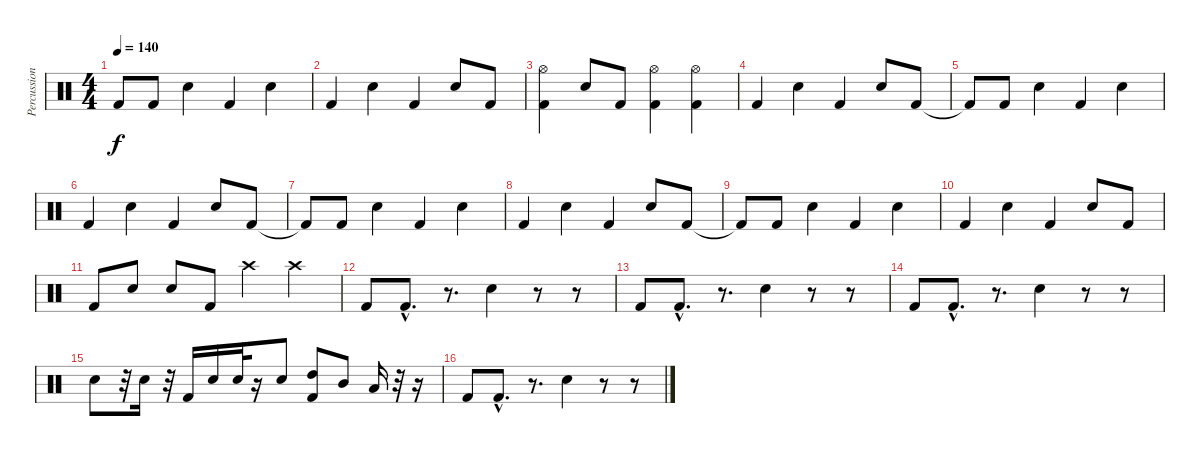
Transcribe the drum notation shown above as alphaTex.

\track ("Percussion" "Percussion") {instrument percussion}
\staff {score}
\articulation defaults
\ts (4 4)
\tempo 140
\clef neutral
\ks c "Kick (hit) 2"{t}.8{dy f} "Kick (hit) 2".8 "Electric Snare (hit)".4 "Kick (hit) 2".4 "Electric Snare (hit)".4
|
"Kick (hit) 2".4 "Electric Snare (hit)".4 "Kick (hit) 2".4 "Electric Snare (hit)".8 "Kick (hit) 2".8 |
("Hi-Hat (open)" "Kick (hit) 2").4 "Electric Snare (hit)".8 "Kick (hit) 2".8 ("Hi-Hat (open)" "Kick (hit) 2").4 ("Hi-Hat (open)" "Kick (hit) 2").4 |
"Kick (hit) 2".4 "Electric Snare (hit)".4 "Kick (hit) 2".4 "Electric Snare (hit)".8 "Kick (hit) 2".8 |
"Kick (hit) 2"{t}.8 "Kick (hit) 2".8 "Electric Snare (hit)".4 "Kick (hit) 2".4 "Electric Snare (hit)".4 |
"Kick (hit) 2".4 "Electric Snare (hit)".4 "Kick (hit) 2".4 "Electric Snare (hit)".8 "Kick (hit) 2".8 |
"Kick (hit) 2"{t}.8 "Kick (hit) 2".8 "Electric Snare (hit)".4 "Kick (hit) 2".4 "Electric Snare (hit)".4 |
"Kick (hit) 2".4 "Electric Snare (hit)".4 "Kick (hit) 2".4 "Electric Snare (hit)".8 "Kick (hit) 2".8 |
"Kick (hit) 2"{t}.8 "Kick (hit) 2".8 "Electric Snare (hit)".4 "Kick (hit) 2".4 "Electric Snare (hit)".4 |
"Kick (hit) 2".4 "Electric Snare (hit)".4 "Kick (hit) 2".4 "Electric Snare (hit)".8 "Kick (hit) 2".8 |
"Kick (hit) 2".8 "Electric Snare (hit)".8 "Electric Snare (hit)".8 "Kick (hit) 2".8 "Crash high (hit)".4 "Crash high (hit)".4 |
"Kick (hit) 2".8 "Kick (hit) 2"{hac}.8{d} r.8{d} "Electric Snare (hit)".4 r.8 r.8 |
"Kick (hit) 2".8 "Kick (hit) 2"{hac}.8{d} r.8{d} "Electric Snare (hit)".4 r.8 r.8 |
"Kick (hit) 2".8 "Kick (hit) 2"{hac}.8{d} r.8{d} "Electric Snare (hit)".4 r.8 r.8 |
"Electric Snare (hit)".8 r.32 "Electric Snare (hit)".16 r.32 "Kick (hit) 2".16 "Electric Snare (hit)".16 "Electric Snare (hit)".32 r.16 "Electric Snare (hit)".8 ("Kick (hit) 2" "High Tom (hit)").8 "Mid Tom (hit)".8 "Low Tom (hit)".16 r.32 r.16 |
"Kick (hit) 2".8 "Kick (hit) 2"{hac}.8{d} r.8{d} "Electric Snare (hit)".4 r.8 r.8
